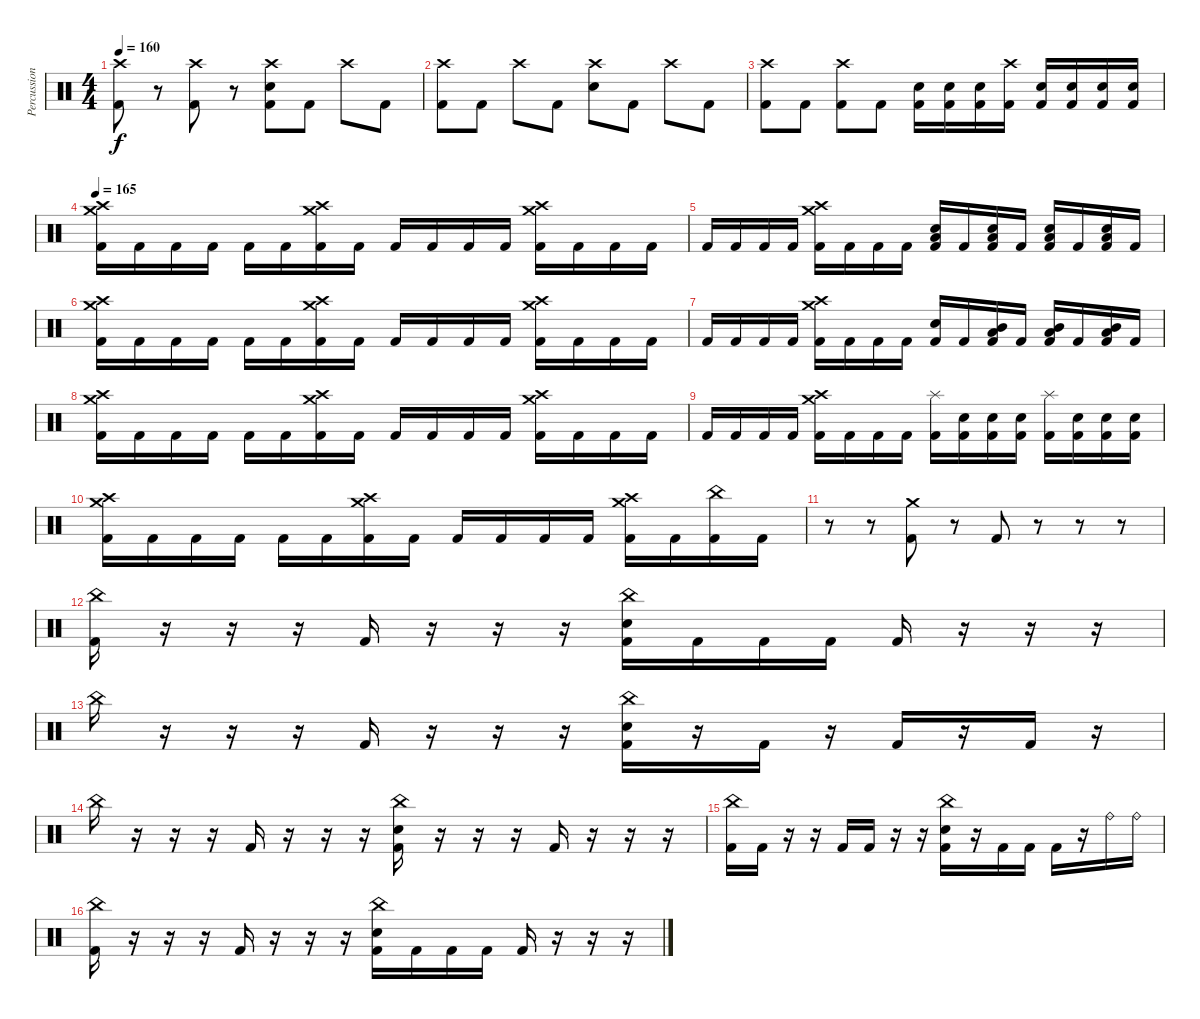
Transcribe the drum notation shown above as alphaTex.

\track ("Percussion" "Percussion") {instrument percussion}
\staff {score}
\articulation defaults
\ts (4 4)
\tempo 160
\clef neutral
\ks c
("Crash high (hit)" "Kick (hit) 2").8{dy f} r.8 ("Crash high (hit)" "Kick (hit) 2").8 r.8 ("Crash high (hit)" "Electric Snare (hit)" "Kick (hit) 2").8 "Kick (hit) 2".8 "Crash high (hit)".8 "Kick (hit) 2".8 |
("Crash high (hit)" "Kick (hit) 2").8 "Kick (hit) 2".8 "Crash high (hit)".8 "Kick (hit) 2".8 ("Crash high (hit)" "Electric Snare (hit)").8 "Kick (hit) 2".8 "Crash high (hit)".8 "Kick (hit) 2".8 |
("Crash high (hit)" "Kick (hit) 2").8 "Kick (hit) 2".8 ("Crash high (hit)" "Kick (hit) 2").8 "Kick (hit) 2".8 ("Electric Snare (hit)" "Kick (hit) 2").16 ("Electric Snare (hit)" "Kick (hit) 2").16 ("Electric Snare (hit)" "Kick (hit) 2").16 ("Crash high (hit)" "Kick (hit) 2").16 ("Electric Snare (hit)" "Kick (hit) 2").16 ("Electric Snare (hit)" "Kick (hit) 2").16 ("Electric Snare (hit)" "Kick (hit) 2").16 ("Electric Snare (hit)" "Kick (hit) 2").16 |
\tempo 165
("Crash medium (hit)" "Crash high (hit)" "Kick (hit) 2").16 "Kick (hit) 2".16 "Kick (hit) 2".16 "Kick (hit) 2".16 "Kick (hit) 2".16 "Kick (hit) 2".16 ("Crash high (hit)" "Crash medium (hit)" "Kick (hit) 2").16 "Kick (hit) 2".16 "Kick (hit) 2".16 "Kick (hit) 2".16 "Kick (hit) 2".16 "Kick (hit) 2".16 ("Crash medium (hit)" "Crash high (hit)" "Kick (hit) 2").16 "Kick (hit) 2".16 "Kick (hit) 2".16 "Kick (hit) 2".16 |
"Kick (hit) 2".16 "Kick (hit) 2".16 "Kick (hit) 2".16 "Kick (hit) 2".16 ("Crash high (hit)" "Crash medium (hit)" "Kick (hit) 2").16 "Kick (hit) 2".16 "Kick (hit) 2".16 "Kick (hit) 2".16 ("Electric Snare (hit)" "Low Floor Tom (hit)" "Kick (hit) 2").16 "Kick (hit) 2".16 ("Electric Snare (hit)" "Low Floor Tom (hit)" "Kick (hit) 2").16 "Kick (hit) 2".16 ("Electric Snare (hit)" "Low Floor Tom (hit)" "Kick (hit) 2").16 "Kick (hit) 2".16 ("Electric Snare (hit)" "Low Floor Tom (hit)" "Kick (hit) 2").16 "Kick (hit) 2".16 |
("Crash medium (hit)" "Crash high (hit)" "Kick (hit) 2").16 "Kick (hit) 2".16 "Kick (hit) 2".16 "Kick (hit) 2".16 "Kick (hit) 2".16 "Kick (hit) 2".16 ("Crash high (hit)" "Crash medium (hit)" "Kick (hit) 2").16 "Kick (hit) 2".16 "Kick (hit) 2".16 "Kick (hit) 2".16 "Kick (hit) 2".16 "Kick (hit) 2".16 ("Crash medium (hit)" "Crash high (hit)" "Kick (hit) 2").16 "Kick (hit) 2".16 "Kick (hit) 2".16 "Kick (hit) 2".16 |
"Kick (hit) 2".16 "Kick (hit) 2".16 "Kick (hit) 2".16 "Kick (hit) 2".16 ("Crash high (hit)" "Crash medium (hit)" "Kick (hit) 2").16 "Kick (hit) 2".16 "Kick (hit) 2".16 "Kick (hit) 2".16 ("Electric Snare (hit)" "Kick (hit) 2").16 "Kick (hit) 2".16 ("Mid Tom (hit)" "Low Floor Tom (hit)" "Kick (hit) 2").16 "Kick (hit) 2".16 ("Mid Tom (hit)" "Low Floor Tom (hit)" "Kick (hit) 2").16 "Kick (hit) 2".16 ("Mid Tom (hit)" "Low Floor Tom (hit)" "Kick (hit) 2").16 "Kick (hit) 2".16 |
("Crash medium (hit)" "Crash high (hit)" "Kick (hit) 2").16 "Kick (hit) 2".16 "Kick (hit) 2".16 "Kick (hit) 2".16 "Kick (hit) 2".16 "Kick (hit) 2".16 ("Crash high (hit)" "Crash medium (hit)" "Kick (hit) 2").16 "Kick (hit) 2".16 "Kick (hit) 2".16 "Kick (hit) 2".16 "Kick (hit) 2".16 "Kick (hit) 2".16 ("Crash medium (hit)" "Crash high (hit)" "Kick (hit) 2").16 "Kick (hit) 2".16 "Kick (hit) 2".16 "Kick (hit) 2".16 |
"Kick (hit) 2".16 "Kick (hit) 2".16 "Kick (hit) 2".16 "Kick (hit) 2".16 ("Crash high (hit)" "Crash medium (hit)" "Kick (hit) 2").16 "Kick (hit) 2".16 "Kick (hit) 2".16 "Kick (hit) 2".16 ("Splash (hit)" "Kick (hit) 2").16 ("Electric Snare (hit)" "Kick (hit) 2").16 ("Electric Snare (hit)" "Kick (hit) 2").16 ("Electric Snare (hit)" "Kick (hit) 2").16 ("Splash (hit)" "Kick (hit) 2").16 ("Electric Snare (hit)" "Kick (hit) 2").16 ("Electric Snare (hit)" "Kick (hit) 2").16 ("Electric Snare (hit)" "Kick (hit) 2").16 |
("Crash medium (hit)" "Crash high (hit)" "Kick (hit) 2").16 "Kick (hit) 2".16 "Kick (hit) 2".16 "Kick (hit) 2".16 "Kick (hit) 2".16 "Kick (hit) 2".16 ("Crash high (hit)" "Crash medium (hit)" "Kick (hit) 2").16 "Kick (hit) 2".16 "Kick (hit) 2".16 "Kick (hit) 2".16 "Kick (hit) 2".16 "Kick (hit) 2".16 ("Crash medium (hit)" "Crash high (hit)" "Kick (hit) 2").16 "Kick (hit) 2".16 ("China (hit)" "Kick (hit) 2").16 "Kick (hit) 2".16 |
r.8 r.8 ("Crash medium (hit)" "Kick (hit) 2").8 r.8 "Kick (hit) 2".8 r.8 r.8 r.8 |
("China (hit)" "Kick (hit) 2").16 r.16 r.16 r.16 "Kick (hit) 2".16 r.16 r.16 r.16 ("China (hit)" "Electric Snare (hit)" "Kick (hit) 2").16 "Kick (hit) 2".16 "Kick (hit) 2".16 "Kick (hit) 2".16 "Kick (hit) 2".16 r.16 r.16 r.16 |
"China (hit)".16 r.16 r.16 r.16 "Kick (hit) 2".16 r.16 r.16 r.16 ("China (hit)" "Electric Snare (hit)" "Kick (hit) 2").16 r.16 "Kick (hit) 2".16 r.16 "Kick (hit) 2".16 r.16 "Kick (hit) 2".16 r.16 |
"China (hit)".16 r.16 r.16 r.16 "Kick (hit) 2".16 r.16 r.16 r.16 ("China (hit)" "Electric Snare (hit)" "Kick (hit) 2").16 r.16 r.16 r.16 "Kick (hit) 2".16 r.16 r.16 r.16 |
("China (hit)" "Kick (hit) 2").16 "Kick (hit) 2".16 r.16 r.16 "Kick (hit) 2".16 "Kick (hit) 2".16 r.16 r.16 ("China (hit)" "Electric Snare (hit)" "Kick (hit) 2").16 r.16 "Kick (hit) 2".16 "Kick (hit) 2".16 "Kick (hit) 2".16 r.16 "Ride (bell)".16 "Ride (bell)".16 |
("China (hit)" "Kick (hit) 2").16 r.16 r.16 r.16 "Kick (hit) 2".16 r.16 r.16 r.16 ("China (hit)" "Electric Snare (hit)" "Kick (hit) 2").16 "Kick (hit) 2".16 "Kick (hit) 2".16 "Kick (hit) 2".16 "Kick (hit) 2".16 r.16 r.16 r.16
